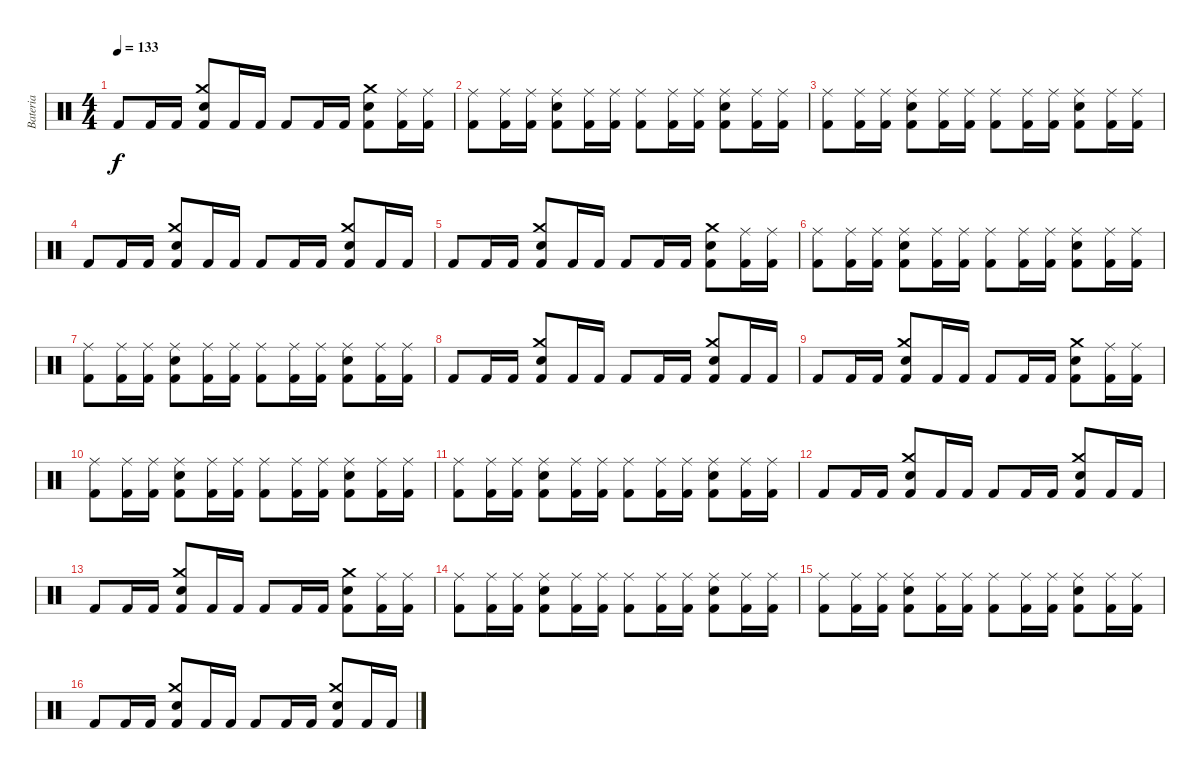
\track ("Bateria" "Bateria") {instrument percussion}
\staff {score}
\articulation defaults
\ts (4 4)
\tempo 133
\clef neutral
\ks c "Kick (hit) 2".8{dy f} "Kick (hit) 2".16 "Kick (hit) 2".16
("Crash medium (hit)" "Snare (hit) 2" "Kick (hit) 2").8 "Kick (hit) 2".16 "Kick (hit) 2".16 "Kick (hit) 2".8 "Kick (hit) 2".16 "Kick (hit) 2".16 ("Crash medium (hit)" "Snare (hit) 2" "Kick (hit) 2").8 ("Ride (middle)" "Kick (hit) 2").16 ("Ride (middle)" "Kick (hit) 2").16 |
("Ride (middle)" "Kick (hit) 2").8 ("Ride (middle)" "Kick (hit) 2").16 ("Ride (middle)" "Kick (hit) 2").16 ("Snare (hit) 2" "Ride (middle)" "Kick (hit) 2").8 ("Ride (middle)" "Kick (hit) 2").16 ("Ride (middle)" "Kick (hit) 2").16 ("Ride (middle)" "Kick (hit) 2").8 ("Ride (middle)" "Kick (hit) 2").16 ("Ride (middle)" "Kick (hit) 2").16 ("Snare (hit) 2" "Ride (middle)" "Kick (hit) 2").8 ("Ride (middle)" "Kick (hit) 2").16 ("Ride (middle)" "Kick (hit) 2").16 |
("Ride (middle)" "Kick (hit) 2").8 ("Ride (middle)" "Kick (hit) 2").16 ("Ride (middle)" "Kick (hit) 2").16 ("Snare (hit) 2" "Ride (middle)" "Kick (hit) 2").8 ("Ride (middle)" "Kick (hit) 2").16 ("Ride (middle)" "Kick (hit) 2").16 ("Ride (middle)" "Kick (hit) 2").8 ("Ride (middle)" "Kick (hit) 2").16 ("Ride (middle)" "Kick (hit) 2").16 ("Snare (hit) 2" "Ride (middle)" "Kick (hit) 2").8 ("Ride (middle)" "Kick (hit) 2").16 ("Ride (middle)" "Kick (hit) 2").16 |
"Kick (hit) 2".8 "Kick (hit) 2".16 "Kick (hit) 2".16 ("Crash medium (hit)" "Snare (hit) 2" "Kick (hit) 2").8 "Kick (hit) 2".16 "Kick (hit) 2".16 "Kick (hit) 2".8 "Kick (hit) 2".16 "Kick (hit) 2".16 ("Crash medium (hit)" "Snare (hit) 2" "Kick (hit) 2").8 "Kick (hit) 2".16 "Kick (hit) 2".16 |
"Kick (hit) 2".8 "Kick (hit) 2".16 "Kick (hit) 2".16 ("Crash medium (hit)" "Snare (hit) 2" "Kick (hit) 2").8 "Kick (hit) 2".16 "Kick (hit) 2".16 "Kick (hit) 2".8 "Kick (hit) 2".16 "Kick (hit) 2".16 ("Crash medium (hit)" "Snare (hit) 2" "Kick (hit) 2").8 ("Ride (middle)" "Kick (hit) 2").16 ("Ride (middle)" "Kick (hit) 2").16 |
("Ride (middle)" "Kick (hit) 2").8 ("Ride (middle)" "Kick (hit) 2").16 ("Ride (middle)" "Kick (hit) 2").16 ("Snare (hit) 2" "Ride (middle)" "Kick (hit) 2").8 ("Ride (middle)" "Kick (hit) 2").16 ("Ride (middle)" "Kick (hit) 2").16 ("Ride (middle)" "Kick (hit) 2").8 ("Ride (middle)" "Kick (hit) 2").16 ("Ride (middle)" "Kick (hit) 2").16 ("Snare (hit) 2" "Ride (middle)" "Kick (hit) 2").8 ("Ride (middle)" "Kick (hit) 2").16 ("Ride (middle)" "Kick (hit) 2").16 |
("Ride (middle)" "Kick (hit) 2").8 ("Ride (middle)" "Kick (hit) 2").16 ("Ride (middle)" "Kick (hit) 2").16 ("Snare (hit) 2" "Ride (middle)" "Kick (hit) 2").8 ("Ride (middle)" "Kick (hit) 2").16 ("Ride (middle)" "Kick (hit) 2").16 ("Ride (middle)" "Kick (hit) 2").8 ("Ride (middle)" "Kick (hit) 2").16 ("Ride (middle)" "Kick (hit) 2").16 ("Snare (hit) 2" "Ride (middle)" "Kick (hit) 2").8 ("Ride (middle)" "Kick (hit) 2").16 ("Ride (middle)" "Kick (hit) 2").16 |
"Kick (hit) 2".8 "Kick (hit) 2".16 "Kick (hit) 2".16 ("Crash medium (hit)" "Snare (hit) 2" "Kick (hit) 2").8 "Kick (hit) 2".16 "Kick (hit) 2".16 "Kick (hit) 2".8 "Kick (hit) 2".16 "Kick (hit) 2".16 ("Crash medium (hit)" "Snare (hit) 2" "Kick (hit) 2").8 "Kick (hit) 2".16 "Kick (hit) 2".16 |
"Kick (hit) 2".8 "Kick (hit) 2".16 "Kick (hit) 2".16 ("Crash medium (hit)" "Snare (hit) 2" "Kick (hit) 2").8 "Kick (hit) 2".16 "Kick (hit) 2".16 "Kick (hit) 2".8 "Kick (hit) 2".16 "Kick (hit) 2".16 ("Crash medium (hit)" "Snare (hit) 2" "Kick (hit) 2").8 ("Ride (middle)" "Kick (hit) 2").16 ("Ride (middle)" "Kick (hit) 2").16 |
("Ride (middle)" "Kick (hit) 2").8 ("Ride (middle)" "Kick (hit) 2").16 ("Ride (middle)" "Kick (hit) 2").16 ("Snare (hit) 2" "Ride (middle)" "Kick (hit) 2").8 ("Ride (middle)" "Kick (hit) 2").16 ("Ride (middle)" "Kick (hit) 2").16 ("Ride (middle)" "Kick (hit) 2").8 ("Ride (middle)" "Kick (hit) 2").16 ("Ride (middle)" "Kick (hit) 2").16 ("Snare (hit) 2" "Ride (middle)" "Kick (hit) 2").8 ("Ride (middle)" "Kick (hit) 2").16 ("Ride (middle)" "Kick (hit) 2").16 |
("Ride (middle)" "Kick (hit) 2").8 ("Ride (middle)" "Kick (hit) 2").16 ("Ride (middle)" "Kick (hit) 2").16 ("Snare (hit) 2" "Ride (middle)" "Kick (hit) 2").8 ("Ride (middle)" "Kick (hit) 2").16 ("Ride (middle)" "Kick (hit) 2").16 ("Ride (middle)" "Kick (hit) 2").8 ("Ride (middle)" "Kick (hit) 2").16 ("Ride (middle)" "Kick (hit) 2").16 ("Snare (hit) 2" "Ride (middle)" "Kick (hit) 2").8 ("Ride (middle)" "Kick (hit) 2").16 ("Ride (middle)" "Kick (hit) 2").16 |
"Kick (hit) 2".8 "Kick (hit) 2".16 "Kick (hit) 2".16 ("Crash medium (hit)" "Snare (hit) 2" "Kick (hit) 2").8 "Kick (hit) 2".16 "Kick (hit) 2".16 "Kick (hit) 2".8 "Kick (hit) 2".16 "Kick (hit) 2".16 ("Crash medium (hit)" "Snare (hit) 2" "Kick (hit) 2").8 "Kick (hit) 2".16 "Kick (hit) 2".16 |
"Kick (hit) 2".8 "Kick (hit) 2".16 "Kick (hit) 2".16 ("Crash medium (hit)" "Snare (hit) 2" "Kick (hit) 2").8 "Kick (hit) 2".16 "Kick (hit) 2".16 "Kick (hit) 2".8 "Kick (hit) 2".16 "Kick (hit) 2".16 ("Crash medium (hit)" "Snare (hit) 2" "Kick (hit) 2").8 ("Ride (middle)" "Kick (hit) 2").16 ("Ride (middle)" "Kick (hit) 2").16 |
("Ride (middle)" "Kick (hit) 2").8 ("Ride (middle)" "Kick (hit) 2").16 ("Ride (middle)" "Kick (hit) 2").16 ("Snare (hit) 2" "Ride (middle)" "Kick (hit) 2").8 ("Ride (middle)" "Kick (hit) 2").16 ("Ride (middle)" "Kick (hit) 2").16 ("Ride (middle)" "Kick (hit) 2").8 ("Ride (middle)" "Kick (hit) 2").16 ("Ride (middle)" "Kick (hit) 2").16 ("Snare (hit) 2" "Ride (middle)" "Kick (hit) 2").8 ("Ride (middle)" "Kick (hit) 2").16 ("Ride (middle)" "Kick (hit) 2").16 |
("Ride (middle)" "Kick (hit) 2").8 ("Ride (middle)" "Kick (hit) 2").16 ("Ride (middle)" "Kick (hit) 2").16 ("Snare (hit) 2" "Ride (middle)" "Kick (hit) 2").8 ("Ride (middle)" "Kick (hit) 2").16 ("Ride (middle)" "Kick (hit) 2").16 ("Ride (middle)" "Kick (hit) 2").8 ("Ride (middle)" "Kick (hit) 2").16 ("Ride (middle)" "Kick (hit) 2").16 ("Snare (hit) 2" "Ride (middle)" "Kick (hit) 2").8 ("Ride (middle)" "Kick (hit) 2").16 ("Ride (middle)" "Kick (hit) 2").16 |
"Kick (hit) 2".8 "Kick (hit) 2".16 "Kick (hit) 2".16 ("Crash medium (hit)" "Snare (hit) 2" "Kick (hit) 2").8 "Kick (hit) 2".16 "Kick (hit) 2".16 "Kick (hit) 2".8 "Kick (hit) 2".16 "Kick (hit) 2".16 ("Crash medium (hit)" "Snare (hit) 2" "Kick (hit) 2").8 "Kick (hit) 2".16 "Kick (hit) 2".16
